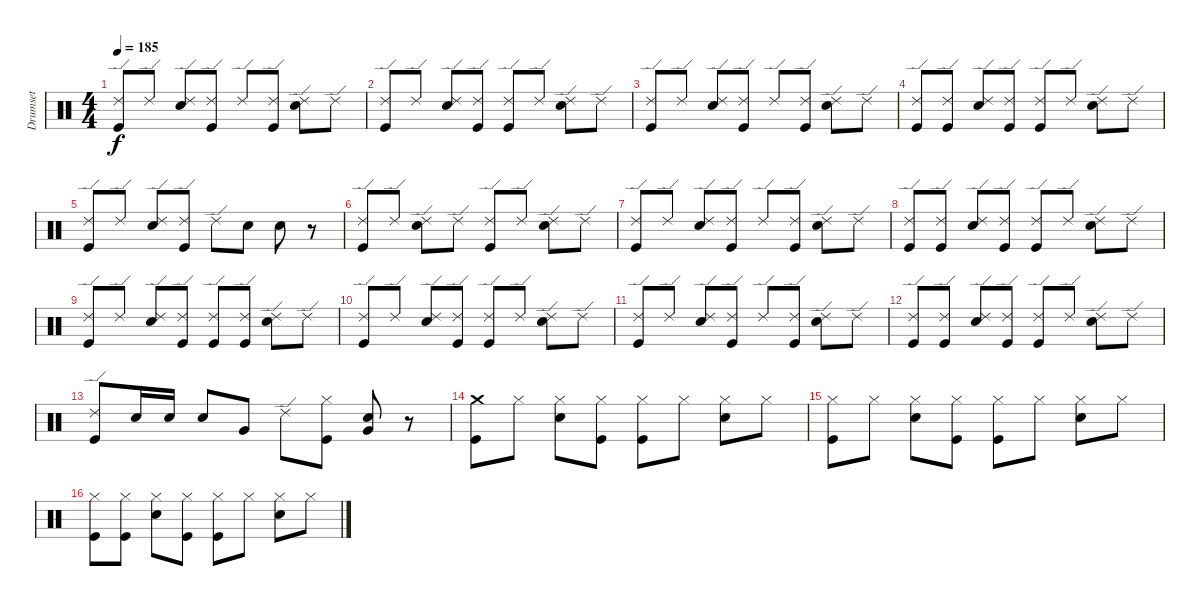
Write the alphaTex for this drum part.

\track ("Drumset" "Drumset") {instrument percussion}
\staff {score}
\articulation defaults
\ts (4 4)
\tempo 185
\clef neutral
\ks c
("Kick (hit)" "Ride (edge) 2").8{dy f} "Ride (edge) 2".8 ("Snare (hit) 2" "Ride (edge) 2").8 ("Kick (hit)" "Ride (edge) 2").8 "Ride (edge) 2".8 ("Kick (hit)" "Ride (edge) 2").8 ("Snare (hit) 2" "Ride (edge) 2").8 "Ride (edge) 2".8 |
("Kick (hit)" "Ride (edge) 2").8 "Ride (edge) 2".8 ("Snare (hit) 2" "Ride (edge) 2").8 ("Kick (hit)" "Ride (edge) 2").8 ("Kick (hit)" "Ride (edge) 2").8 "Ride (edge) 2".8 ("Snare (hit) 2" "Ride (edge) 2").8 "Ride (edge) 2".8 |
("Kick (hit)" "Ride (edge) 2").8 "Ride (edge) 2".8 ("Snare (hit) 2" "Ride (edge) 2").8 ("Kick (hit)" "Ride (edge) 2").8 "Ride (edge) 2".8 ("Kick (hit)" "Ride (edge) 2").8 ("Snare (hit) 2" "Ride (edge) 2").8 "Ride (edge) 2".8 |
("Kick (hit)" "Ride (edge) 2").8 ("Kick (hit)" "Ride (edge) 2").8 ("Snare (hit) 2" "Ride (edge) 2").8 ("Kick (hit)" "Ride (edge) 2").8 ("Kick (hit)" "Ride (edge) 2").8 "Ride (edge) 2".8 ("Snare (hit) 2" "Ride (edge) 2").8 "Ride (edge) 2".8 |
("Kick (hit)" "Ride (edge) 2").8 "Ride (edge) 2".8 ("Snare (hit) 2" "Ride (edge) 2").8 ("Kick (hit)" "Ride (edge) 2").8 "Ride (edge) 2".8 "Snare (hit) 2".8 "Snare (hit) 2".8 r.8 |
("Kick (hit)" "Ride (edge) 2").8 "Ride (edge) 2".8 ("Snare (hit) 2" "Ride (edge) 2").8 "Ride (edge) 2".8 ("Kick (hit)" "Ride (edge) 2").8 "Ride (edge) 2".8 ("Snare (hit) 2" "Ride (edge) 2").8 "Ride (edge) 2".8 |
("Kick (hit)" "Ride (edge) 2").8 "Ride (edge) 2".8 ("Snare (hit) 2" "Ride (edge) 2").8 ("Kick (hit)" "Ride (edge) 2").8 "Ride (edge) 2".8 ("Kick (hit)" "Ride (edge) 2").8 ("Snare (hit) 2" "Ride (edge) 2").8 "Ride (edge) 2".8 |
("Kick (hit)" "Ride (edge) 2").8 ("Kick (hit)" "Ride (edge) 2").8 ("Snare (hit) 2" "Ride (edge) 2").8 ("Kick (hit)" "Ride (edge) 2").8 ("Kick (hit)" "Ride (edge) 2").8 "Ride (edge) 2".8 ("Snare (hit) 2" "Ride (edge) 2").8 "Ride (edge) 2".8 |
("Kick (hit)" "Ride (edge) 2").8 "Ride (edge) 2".8 ("Snare (hit) 2" "Ride (edge) 2").8 ("Kick (hit)" "Ride (edge) 2").8 ("Kick (hit)" "Ride (edge) 2").8 ("Kick (hit)" "Ride (edge) 2").8 ("Snare (hit) 2" "Ride (edge) 2").8 "Ride (edge) 2".8 |
("Kick (hit)" "Ride (edge) 2").8 "Ride (edge) 2".8 ("Snare (hit) 2" "Ride (edge) 2").8 ("Kick (hit)" "Ride (edge) 2").8 ("Kick (hit)" "Ride (edge) 2").8 "Ride (edge) 2".8 ("Snare (hit) 2" "Ride (edge) 2").8 "Ride (edge) 2".8 |
("Kick (hit)" "Ride (edge) 2").8 "Ride (edge) 2".8 ("Snare (hit) 2" "Ride (edge) 2").8 ("Kick (hit)" "Ride (edge) 2").8 "Ride (edge) 2".8 ("Kick (hit)" "Ride (edge) 2").8 ("Snare (hit) 2" "Ride (edge) 2").8 "Ride (edge) 2".8 |
("Kick (hit)" "Ride (edge) 2").8 ("Kick (hit)" "Ride (edge) 2").8 ("Snare (hit) 2" "Ride (edge) 2").8 ("Kick (hit)" "Ride (edge) 2").8 ("Kick (hit)" "Ride (edge) 2").8 "Ride (edge) 2".8 ("Snare (hit) 2" "Ride (edge) 2").8 "Ride (edge) 2".8 |
("Kick (hit)" "Ride (edge) 2").8 "Snare (hit) 2".16 "Snare (hit) 2".16 "Snare (hit) 2".8 "Very Low Tom (hit)".8 "Ride (edge) 2".8 ("Kick (hit)" "Hi-Hat (closed)").8 ("Very Low Tom (hit)" "Snare (hit) 2").8 r.8 |
("Crash medium (hit)" "Kick (hit)").8 "Hi-Hat (closed)".8 ("Hi-Hat (closed)" "Snare (hit) 2").8 ("Hi-Hat (closed)" "Kick (hit)").8 ("Hi-Hat (closed)" "Kick (hit)").8 "Hi-Hat (closed)".8 ("Hi-Hat (closed)" "Snare (hit) 2").8 "Hi-Hat (closed)".8 |
("Hi-Hat (closed)" "Kick (hit)").8 "Hi-Hat (closed)".8 ("Hi-Hat (closed)" "Snare (hit) 2").8 ("Hi-Hat (closed)" "Kick (hit)").8 ("Hi-Hat (closed)" "Kick (hit)").8 "Hi-Hat (closed)".8 ("Hi-Hat (closed)" "Snare (hit) 2").8 "Hi-Hat (closed)".8 |
("Hi-Hat (closed)" "Kick (hit)").8 ("Hi-Hat (closed)" "Kick (hit)").8 ("Hi-Hat (closed)" "Snare (hit) 2").8 ("Hi-Hat (closed)" "Kick (hit)").8 ("Hi-Hat (closed)" "Kick (hit)").8 "Hi-Hat (closed)".8 ("Hi-Hat (closed)" "Snare (hit) 2").8 "Hi-Hat (closed)".8
